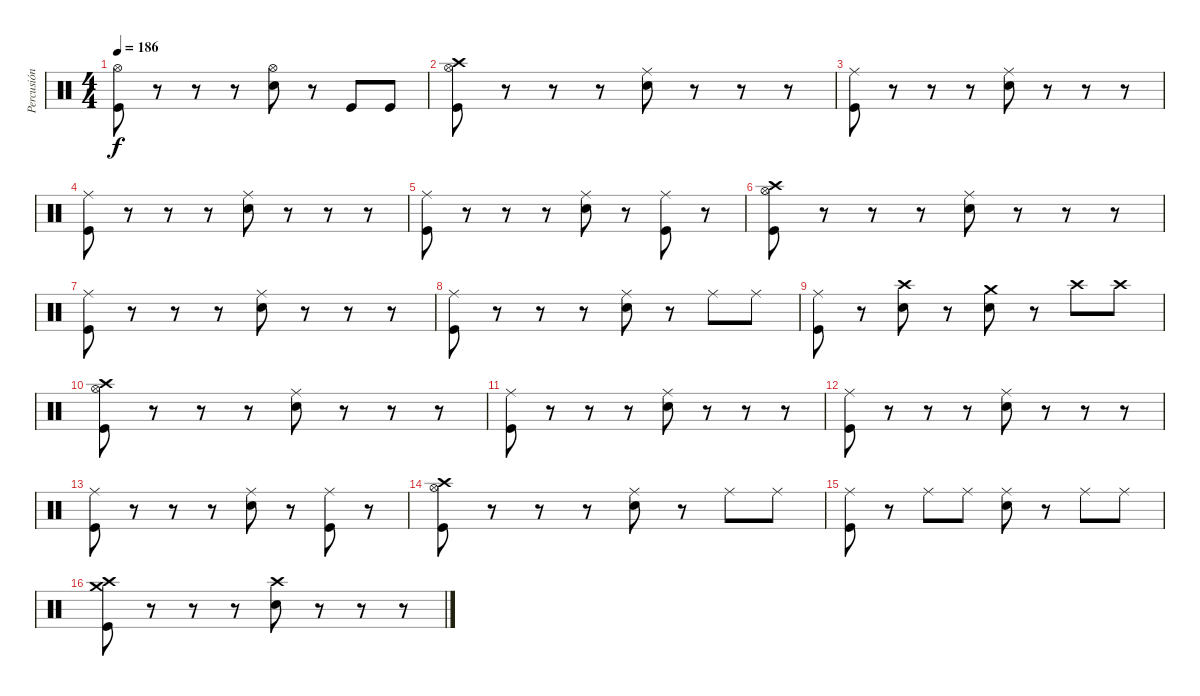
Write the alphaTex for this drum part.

\track ("Percusión" "Percusión") {instrument percussion}
\staff {score}
\articulation defaults
\ts (4 4)
\tempo 186
\clef neutral
\ks c
("Hi-Hat (open)" "Kick (hit)").8{dy f} r.8 r.8 r.8 ("Hi-Hat (open)" "Snare (hit) 2").8 r.8 "Kick (hit)".8 "Kick (hit)".8 |
("Hi-Hat (open)" "Crash high (hit)" "Kick (hit)").8 r.8 r.8 r.8 ("Ride (middle)" "Snare (hit) 2").8 r.8 r.8 r.8 |
("Ride (middle)" "Kick (hit)").8 r.8 r.8 r.8 ("Ride (middle)" "Snare (hit) 2").8 r.8 r.8 r.8 |
("Ride (middle)" "Kick (hit)").8 r.8 r.8 r.8 ("Ride (middle)" "Snare (hit) 2").8 r.8 r.8 r.8 |
("Ride (middle)" "Kick (hit)").8 r.8 r.8 r.8 ("Ride (middle)" "Snare (hit) 2").8 r.8 ("Ride (middle)" "Kick (hit)").8 r.8 |
("Hi-Hat (open)" "Crash high (hit)" "Kick (hit)").8 r.8 r.8 r.8 ("Ride (middle)" "Snare (hit) 2").8 r.8 r.8 r.8 |
("Ride (middle)" "Kick (hit)").8 r.8 r.8 r.8 ("Ride (middle)" "Snare (hit) 2").8 r.8 r.8 r.8 |
("Ride (middle)" "Kick (hit)").8 r.8 r.8 r.8 ("Ride (middle)" "Snare (hit) 2").8 r.8 "Ride (middle)".8 "Ride (middle)".8 |
("Ride (middle)" "Kick (hit)").8 r.8 ("Crash high (hit)" "Snare (hit) 2").8 r.8 ("Crash medium (hit)" "Snare (hit) 2").8 r.8 "Crash high (hit)".8 "Crash high (hit)".8 |
("Hi-Hat (open)" "Crash high (hit)" "Kick (hit)").8 r.8 r.8 r.8 ("Ride (middle)" "Snare (hit) 2").8 r.8 r.8 r.8 |
("Ride (middle)" "Kick (hit)").8 r.8 r.8 r.8 ("Ride (middle)" "Snare (hit) 2").8 r.8 r.8 r.8 |
("Ride (middle)" "Kick (hit)").8 r.8 r.8 r.8 ("Ride (middle)" "Snare (hit) 2").8 r.8 r.8 r.8 |
("Ride (middle)" "Kick (hit)").8 r.8 r.8 r.8 ("Ride (middle)" "Snare (hit) 2").8 r.8 ("Ride (middle)" "Kick (hit)").8 r.8 |
("Hi-Hat (open)" "Crash high (hit)" "Kick (hit)").8 r.8 r.8 r.8 ("Ride (middle)" "Snare (hit) 2").8 r.8 "Ride (middle)".8 "Ride (middle)".8 |
("Ride (middle)" "Kick (hit)").8 r.8 "Ride (middle)".8 "Ride (middle)".8 ("Ride (middle)" "Snare (hit) 2").8 r.8 "Ride (middle)".8 "Ride (middle)".8 |
("Crash high (hit)" "Crash medium (hit)" "Kick (hit)").8 r.8 r.8 r.8 ("Crash high (hit)" "Snare (hit) 2").8 r.8 r.8 r.8
